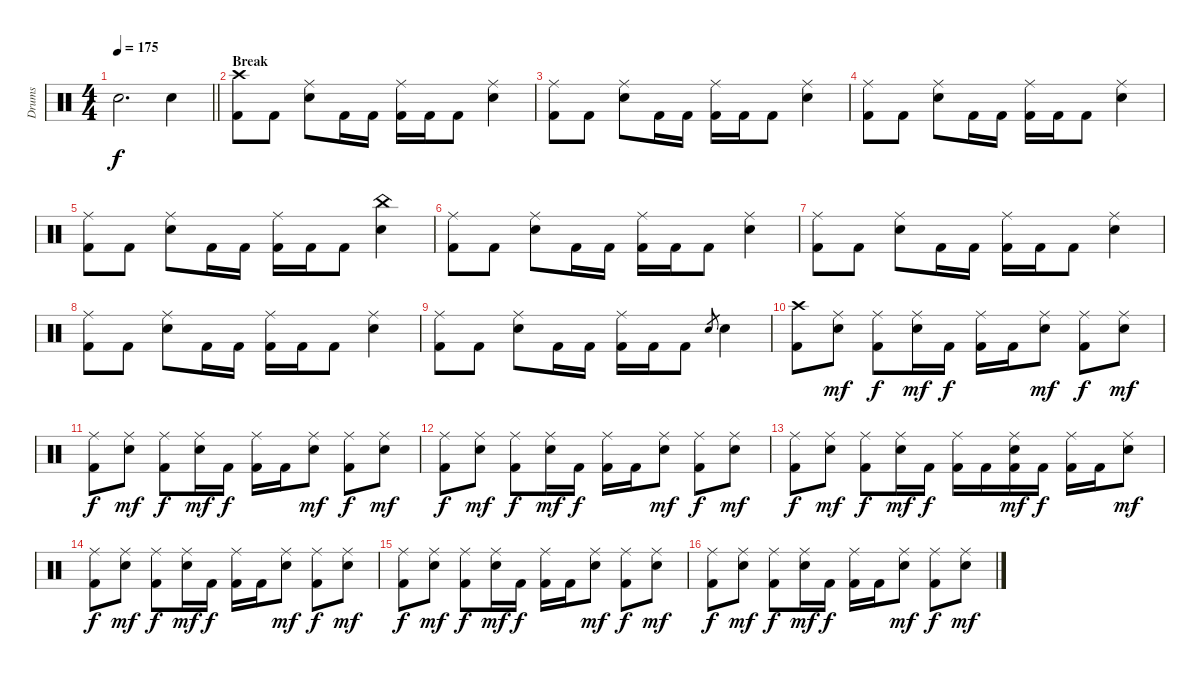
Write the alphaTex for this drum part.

\track ("Drums" "Drums") {instrument percussion}
\staff {score}
\articulation defaults
\ts (4 4)
\tempo 175
\clef neutral
\barLineRight lightlight
\ks c "Electric Snare (hit)".2{d dy f} "Electric Snare (hit)".4
|
\section ("" "Break")
("Kick (hit) 2" "Crash high (hit)").8 "Kick (hit) 2".8 ("Ride (middle)" "Electric Snare (hit)").8 "Kick (hit) 2".16 "Kick (hit) 2".16 ("Kick (hit) 2" "Ride (middle)").16 "Kick (hit) 2".16 "Kick (hit) 2".8 ("Ride (middle)" "Electric Snare (hit)").4 |
("Kick (hit) 2" "Ride (middle)").8 "Kick (hit) 2".8 ("Ride (middle)" "Electric Snare (hit)").8 "Kick (hit) 2".16 "Kick (hit) 2".16 ("Kick (hit) 2" "Ride (middle)").16 "Kick (hit) 2".16 "Kick (hit) 2".8 ("Ride (middle)" "Electric Snare (hit)").4 |
("Kick (hit) 2" "Ride (middle)").8 "Kick (hit) 2".8 ("Ride (middle)" "Electric Snare (hit)").8 "Kick (hit) 2".16 "Kick (hit) 2".16 ("Kick (hit) 2" "Ride (middle)").16 "Kick (hit) 2".16 "Kick (hit) 2".8 ("Ride (middle)" "Electric Snare (hit)").4 |
("Kick (hit) 2" "Ride (middle)").8 "Kick (hit) 2".8 ("Ride (middle)" "Electric Snare (hit)").8 "Kick (hit) 2".16 "Kick (hit) 2".16 ("Kick (hit) 2" "Ride (middle)").16 "Kick (hit) 2".16 "Kick (hit) 2".8 ("China (hit)" "Electric Snare (hit)").4 |
("Kick (hit) 2" "Ride (middle)").8 "Kick (hit) 2".8 ("Ride (middle)" "Electric Snare (hit)").8 "Kick (hit) 2".16 "Kick (hit) 2".16 ("Kick (hit) 2" "Ride (middle)").16 "Kick (hit) 2".16 "Kick (hit) 2".8 ("Ride (middle)" "Electric Snare (hit)").4 |
("Kick (hit) 2" "Ride (middle)").8 "Kick (hit) 2".8 ("Ride (middle)" "Electric Snare (hit)").8 "Kick (hit) 2".16 "Kick (hit) 2".16 ("Kick (hit) 2" "Ride (middle)").16 "Kick (hit) 2".16 "Kick (hit) 2".8 ("Ride (middle)" "Electric Snare (hit)").4 |
("Kick (hit) 2" "Ride (middle)").8 "Kick (hit) 2".8 ("Ride (middle)" "Electric Snare (hit)").8 "Kick (hit) 2".16 "Kick (hit) 2".16 ("Kick (hit) 2" "Ride (middle)").16 "Kick (hit) 2".16 "Kick (hit) 2".8 ("Ride (middle)" "Electric Snare (hit)").4 |
("Kick (hit) 2" "Ride (middle)").8 "Kick (hit) 2".8 ("Ride (middle)" "Electric Snare (hit)").8 "Kick (hit) 2".16 "Kick (hit) 2".16 ("Kick (hit) 2" "Ride (middle)").16 "Kick (hit) 2".16 "Kick (hit) 2".8 "Electric Snare (hit)".8{gr} "Electric Snare (hit)".4 |
("Kick (hit) 2" "Crash high (hit)").8 ("Ride (middle)" "Electric Snare (hit)").8{dy mf} ("Kick (hit) 2" "Ride (middle)").8{dy f} ("Ride (middle)" "Electric Snare (hit)").16{dy mf} "Kick (hit) 2".16{dy f} ("Kick (hit) 2" "Ride (middle)").16 "Kick (hit) 2".16 ("Ride (middle)" "Electric Snare (hit)").8{dy mf} ("Kick (hit) 2" "Ride (middle)").8{dy f} ("Ride (middle)" "Electric Snare (hit)").8{dy mf} |
("Kick (hit) 2" "Ride (middle)").8{dy f} ("Ride (middle)" "Electric Snare (hit)").8{dy mf} ("Kick (hit) 2" "Ride (middle)").8{dy f} ("Ride (middle)" "Electric Snare (hit)").16{dy mf} "Kick (hit) 2".16{dy f} ("Kick (hit) 2" "Ride (middle)").16 "Kick (hit) 2".16 ("Ride (middle)" "Electric Snare (hit)").8{dy mf} ("Kick (hit) 2" "Ride (middle)").8{dy f} ("Ride (middle)" "Electric Snare (hit)").8{dy mf} |
("Kick (hit) 2" "Ride (middle)").8{dy f} ("Ride (middle)" "Electric Snare (hit)").8{dy mf} ("Kick (hit) 2" "Ride (middle)").8{dy f} ("Ride (middle)" "Electric Snare (hit)").16{dy mf} "Kick (hit) 2".16{dy f} ("Kick (hit) 2" "Ride (middle)").16 "Kick (hit) 2".16 ("Ride (middle)" "Electric Snare (hit)").8{dy mf} ("Kick (hit) 2" "Ride (middle)").8{dy f} ("Ride (middle)" "Electric Snare (hit)").8{dy mf} |
("Kick (hit) 2" "Ride (middle)").8{dy f} ("Ride (middle)" "Electric Snare (hit)").8{dy mf} ("Kick (hit) 2" "Ride (middle)").8{dy f} ("Ride (middle)" "Electric Snare (hit)").16{dy mf} "Kick (hit) 2".16{dy f} ("Kick (hit) 2" "Ride (middle)").16 "Kick (hit) 2".16 ("Kick (hit) 2" "Ride (middle)" "Electric Snare (hit)").16{dy mf} "Kick (hit) 2".16{dy f} ("Kick (hit) 2" "Ride (middle)").16 "Kick (hit) 2".16 ("Ride (middle)" "Electric Snare (hit)").8{dy mf} |
("Kick (hit) 2" "Ride (middle)").8{dy f} ("Ride (middle)" "Electric Snare (hit)").8{dy mf} ("Kick (hit) 2" "Ride (middle)").8{dy f} ("Ride (middle)" "Electric Snare (hit)").16{dy mf} "Kick (hit) 2".16{dy f} ("Kick (hit) 2" "Ride (middle)").16 "Kick (hit) 2".16 ("Ride (middle)" "Electric Snare (hit)").8{dy mf} ("Kick (hit) 2" "Ride (middle)").8{dy f} ("Ride (middle)" "Electric Snare (hit)").8{dy mf} |
("Kick (hit) 2" "Ride (middle)").8{dy f} ("Ride (middle)" "Electric Snare (hit)").8{dy mf} ("Kick (hit) 2" "Ride (middle)").8{dy f} ("Ride (middle)" "Electric Snare (hit)").16{dy mf} "Kick (hit) 2".16{dy f} ("Kick (hit) 2" "Ride (middle)").16 "Kick (hit) 2".16 ("Ride (middle)" "Electric Snare (hit)").8{dy mf} ("Kick (hit) 2" "Ride (middle)").8{dy f} ("Ride (middle)" "Electric Snare (hit)").8{dy mf} |
("Kick (hit) 2" "Ride (middle)").8{dy f} ("Ride (middle)" "Electric Snare (hit)").8{dy mf} ("Kick (hit) 2" "Ride (middle)").8{dy f} ("Ride (middle)" "Electric Snare (hit)").16{dy mf} "Kick (hit) 2".16{dy f} ("Kick (hit) 2" "Ride (middle)").16 "Kick (hit) 2".16 ("Ride (middle)" "Electric Snare (hit)").8{dy mf} ("Kick (hit) 2" "Ride (middle)").8{dy f} ("Ride (middle)" "Electric Snare (hit)").8{dy mf}
